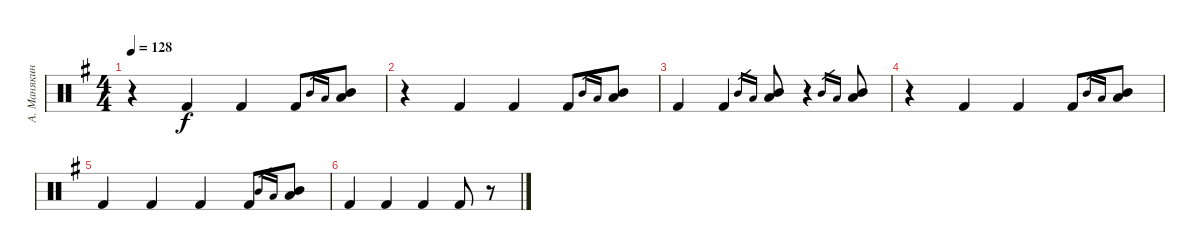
\track ("А. Манякин" "А. Манякин") {instrument percussion}
\staff {score}
\articulation defaults
\ts (4 4)
\tempo 128
\clef neutral
\ks g
r.4{dy f} "Kick (hit) 2".4 "Kick (hit) 2".4 "Kick (hit) 2".8 "Mid Tom (hit)".16{gr} "Low Tom (hit)".16{gr} ("Mid Tom (hit)" "Low Tom (hit)").8 |
r.4 "Kick (hit) 2".4 "Kick (hit) 2".4 "Kick (hit) 2".8 "Mid Tom (hit)".16{gr} "Low Tom (hit)".16{gr} ("Mid Tom (hit)" "Low Tom (hit)").8 |
"Kick (hit) 2".4 "Kick (hit) 2".4 "Mid Tom (hit)".16{gr} "Low Tom (hit)".16{gr} ("Mid Tom (hit)" "Low Tom (hit)").8 r.4 "Mid Tom (hit)".16{gr} "Low Tom (hit)".16{gr} ("Mid Tom (hit)" "Low Tom (hit)").8 |
r.4 "Kick (hit) 2".4 "Kick (hit) 2".4 "Kick (hit) 2".8 "Mid Tom (hit)".16{gr} "Low Tom (hit)".16{gr} ("Mid Tom (hit)" "Low Tom (hit)").8 |
"Kick (hit) 2".4 "Kick (hit) 2".4 "Kick (hit) 2".4 "Kick (hit) 2".8 "Mid Tom (hit)".16{gr} "Low Tom (hit)".16{gr} ("Mid Tom (hit)" "Low Tom (hit)").8 |
"Kick (hit) 2".4 "Kick (hit) 2".4 "Kick (hit) 2".4 "Kick (hit) 2".8 r.8
